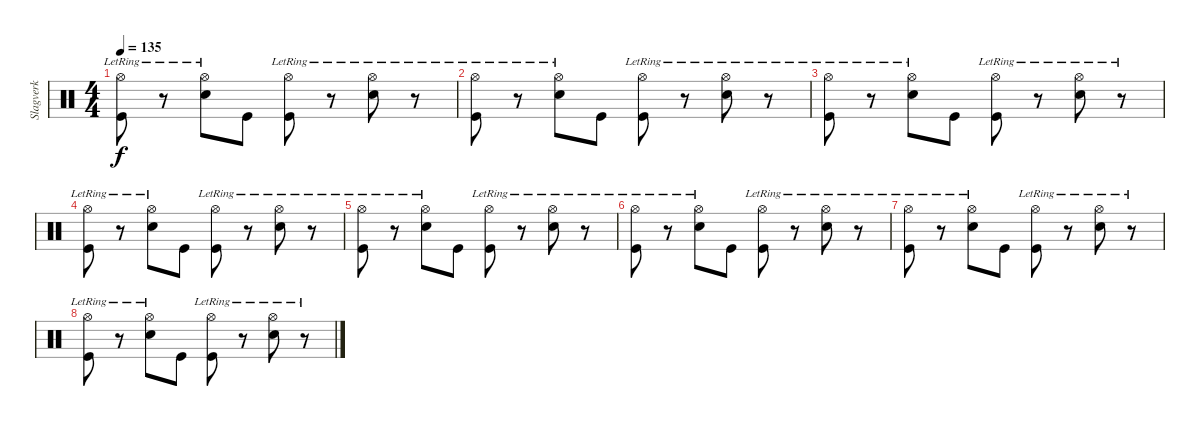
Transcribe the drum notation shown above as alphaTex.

\track ("Slagverk" "Slagverk") {instrument percussion}
\staff {score}
\articulation defaults
\ts (4 4)
\tempo 135
\clef neutral
\ks c
("Hi-Hat (open)"{lr} "Kick (hit)").8{dy f} r.8 ("Electric Snare (hit)" "Hi-Hat (open)"{lr}).8 "Kick (hit)".8 ("Hi-Hat (open)"{lr} "Kick (hit)").8 r.8 ("Electric Snare (hit)" "Hi-Hat (open)"{lr}).8 r.8 |
("Hi-Hat (open)"{lr} "Kick (hit)").8 r.8 ("Electric Snare (hit)" "Hi-Hat (open)"{lr}).8 "Kick (hit)".8 ("Hi-Hat (open)"{lr} "Kick (hit)").8 r.8 ("Electric Snare (hit)" "Hi-Hat (open)"{lr}).8 r.8 |
("Hi-Hat (open)"{lr} "Kick (hit)").8 r.8 ("Electric Snare (hit)" "Hi-Hat (open)"{lr}).8 "Kick (hit)".8 ("Hi-Hat (open)"{lr} "Kick (hit)").8 r.8 ("Electric Snare (hit)" "Hi-Hat (open)"{lr}).8 r.8 |
("Hi-Hat (open)"{lr} "Kick (hit)").8 r.8 ("Electric Snare (hit)" "Hi-Hat (open)"{lr}).8 "Kick (hit)".8 ("Hi-Hat (open)"{lr} "Kick (hit)").8 r.8 ("Electric Snare (hit)" "Hi-Hat (open)"{lr}).8 r.8 |
("Hi-Hat (open)"{lr} "Kick (hit)").8 r.8 ("Electric Snare (hit)" "Hi-Hat (open)"{lr}).8 "Kick (hit)".8 ("Hi-Hat (open)"{lr} "Kick (hit)").8 r.8 ("Electric Snare (hit)" "Hi-Hat (open)"{lr}).8 r.8 |
("Hi-Hat (open)"{lr} "Kick (hit)").8 r.8 ("Electric Snare (hit)" "Hi-Hat (open)"{lr}).8 "Kick (hit)".8 ("Hi-Hat (open)"{lr} "Kick (hit)").8 r.8 ("Electric Snare (hit)" "Hi-Hat (open)"{lr}).8 r.8 |
("Hi-Hat (open)"{lr} "Kick (hit)").8 r.8 ("Electric Snare (hit)" "Hi-Hat (open)"{lr}).8 "Kick (hit)".8 ("Hi-Hat (open)"{lr} "Kick (hit)").8 r.8 ("Electric Snare (hit)" "Hi-Hat (open)"{lr}).8 r.8 |
("Hi-Hat (open)"{lr} "Kick (hit)").8 r.8 ("Electric Snare (hit)" "Hi-Hat (open)"{lr}).8 "Kick (hit)".8 ("Hi-Hat (open)"{lr} "Kick (hit)").8 r.8 ("Electric Snare (hit)" "Hi-Hat (open)"{lr}).8 r.8
